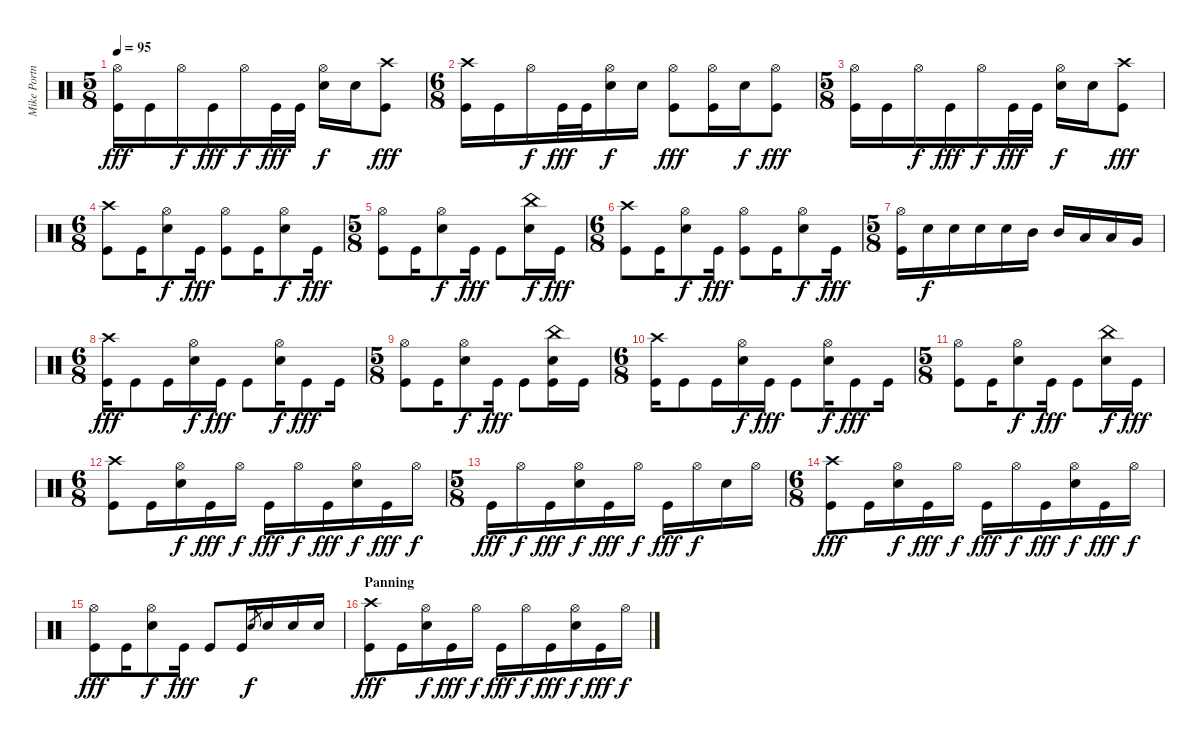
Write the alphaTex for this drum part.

\track ("Mike Portnoy" "Mike Portn") {instrument percussion}
\staff {score}
\articulation defaults
\ts (5 8)
\tempo 95
\clef neutral
\ks c
("Hi-Hat (open)" "Kick (hit)").16{dy fff} "Kick (hit)".16 "Hi-Hat (open)".16{dy f} "Kick (hit)".16{dy fff} "Hi-Hat (open)".16{dy f} "Kick (hit)".32{dy fff} "Kick (hit)".32 ("Hi-Hat (open)" "Electric Snare (hit)").16{dy f} "Electric Snare (hit)".16 ("Crash high (hit)" "Kick (hit)").8{dy fff} |
\ts (6 8)
("Crash high (hit)" "Kick (hit)").16 "Kick (hit)".16 "Hi-Hat (open)".16{dy f} "Kick (hit)".32{dy fff} "Kick (hit)".32 ("Hi-Hat (open)" "Electric Snare (hit)").16{dy f} "Electric Snare (hit)".16 ("Hi-Hat (open)" "Kick (hit)").8{dy fff} ("Hi-Hat (open)" "Kick (hit)").16 "Electric Snare (hit)".16{dy f} ("Hi-Hat (open)" "Kick (hit)").8{dy fff} |
\ts (5 8)
("Hi-Hat (open)" "Kick (hit)").16 "Kick (hit)".16 "Hi-Hat (open)".16{dy f} "Kick (hit)".16{dy fff} "Hi-Hat (open)".16{dy f} "Kick (hit)".32{dy fff} "Kick (hit)".32 ("Hi-Hat (open)" "Electric Snare (hit)").16{dy f} "Electric Snare (hit)".16 ("Crash high (hit)" "Kick (hit)").8{dy fff} |
\ts (6 8)
("Crash high (hit)" "Kick (hit)").8 "Kick (hit)".16 ("Hi-Hat (open)" "Electric Snare (hit)").8{dy f} "Kick (hit)".16{dy fff} ("Hi-Hat (open)" "Kick (hit)").8 "Kick (hit)".16 ("Hi-Hat (open)" "Electric Snare (hit)").8{dy f} "Kick (hit)".16{dy fff} |
\ts (5 8)
("Hi-Hat (open)" "Kick (hit)").8 "Kick (hit)".16 ("Hi-Hat (open)" "Electric Snare (hit)").8{dy f} "Kick (hit)".16{dy fff} "Kick (hit)".8 ("China (hit)" "Electric Snare (hit)").16{dy f} "Kick (hit)".16{dy fff} |
\ts (6 8)
("Crash high (hit)" "Kick (hit)").8 "Kick (hit)".16 ("Hi-Hat (open)" "Electric Snare (hit)").8{dy f} "Kick (hit)".16{dy fff} ("Hi-Hat (open)" "Kick (hit)").8 "Kick (hit)".16 ("Hi-Hat (open)" "Electric Snare (hit)").8{dy f} "Kick (hit)".16{dy fff} |
\ts (5 8)
("Hi-Hat (open)" "Kick (hit)").16 "Electric Snare (hit)".16{dy f} "Electric Snare (hit)".16 "Electric Snare (hit)".16 "Electric Snare (hit)".16 "Mid Tom (hit)".16 "Mid Tom (hit)".16 "Low Tom (hit)".16 "Low Tom (hit)".16 "Very Low Tom (hit)".16 |
\ts (6 8)
("Crash high (hit)" "Kick (hit)").16{dy fff} "Kick (hit)".8 "Kick (hit)".16 ("Hi-Hat (open)" "Electric Snare (hit)").16{dy f} "Kick (hit)".16{dy fff} "Kick (hit)".8 ("Hi-Hat (open)" "Electric Snare (hit)").16{dy f} "Kick (hit)".8{dy fff} "Kick (hit)".16 |
\ts (5 8)
("Hi-Hat (open)" "Kick (hit)").8 "Kick (hit)".16 ("Hi-Hat (open)" "Electric Snare (hit)").8{dy f} "Kick (hit)".16{dy fff} "Kick (hit)".8 ("China (hit)" "Electric Snare (hit)" "Kick (hit)").16 "Kick (hit)".16 |
\ts (6 8)
("Crash high (hit)" "Kick (hit)").16 "Kick (hit)".8 "Kick (hit)".16 ("Hi-Hat (open)" "Electric Snare (hit)").16{dy f} "Kick (hit)".16{dy fff} "Kick (hit)".8 ("Hi-Hat (open)" "Electric Snare (hit)").16{dy f} "Kick (hit)".8{dy fff} "Kick (hit)".16 |
\ts (5 8)
("Hi-Hat (open)" "Kick (hit)").8 "Kick (hit)".16 ("Hi-Hat (open)" "Electric Snare (hit)").8{dy f} "Kick (hit)".16{dy fff} "Kick (hit)".8 ("China (hit)" "Electric Snare (hit)").16{dy f} "Kick (hit)".16{dy fff} |
\ts (6 8)
("Crash high (hit)" "Kick (hit)").8 "Kick (hit)".16 ("Hi-Hat (open)" "Electric Snare (hit)").16{dy f} "Kick (hit)".16{dy fff} "Hi-Hat (open)".16{dy f} "Kick (hit)".16{dy fff} "Hi-Hat (open)".16{dy f} "Kick (hit)".16{dy fff} ("Hi-Hat (open)" "Electric Snare (hit)").16{dy f} "Kick (hit)".16{dy fff} "Hi-Hat (open)".16{dy f} |
\ts (5 8)
"Kick (hit)".16{dy fff} "Hi-Hat (open)".16{dy f} "Kick (hit)".16{dy fff} ("Hi-Hat (open)" "Electric Snare (hit)").16{dy f} "Kick (hit)".16{dy fff} "Hi-Hat (open)".16{dy f} "Kick (hit)".16{dy fff} "Hi-Hat (open)".16{dy f} "Electric Snare (hit)".16 "Hi-Hat (open)".16 |
\ts (6 8)
("Crash high (hit)" "Kick (hit)").8{dy fff} "Kick (hit)".16 ("Hi-Hat (open)" "Electric Snare (hit)").16{dy f} "Kick (hit)".16{dy fff} "Hi-Hat (open)".16{dy f} "Kick (hit)".16{dy fff} "Hi-Hat (open)".16{dy f} "Kick (hit)".16{dy fff} ("Hi-Hat (open)" "Electric Snare (hit)").16{dy f} "Kick (hit)".16{dy fff} "Hi-Hat (open)".16{dy f} |
("Hi-Hat (open)" "Kick (hit)").8{dy fff} "Kick (hit)".16 ("Hi-Hat (open)" "Electric Snare (hit)").8{dy f} "Kick (hit)".16{dy fff} "Kick (hit)".8 "Kick (hit)".16 "Electric Snare (hit)".8{gr dy f} "Electric Snare (hit)".16 "Electric Snare (hit)".16 "Electric Snare (hit)".16 |
\section ("" "Panning")
("Crash high (hit)" "Kick (hit)").8{dy fff} "Kick (hit)".16 ("Hi-Hat (open)" "Electric Snare (hit)").16{dy f} "Kick (hit)".16{dy fff} "Hi-Hat (open)".16{dy f} "Kick (hit)".16{dy fff} "Hi-Hat (open)".16{dy f} "Kick (hit)".16{dy fff} ("Hi-Hat (open)" "Electric Snare (hit)").16{dy f} "Kick (hit)".16{dy fff} "Hi-Hat (open)".16{dy f}
